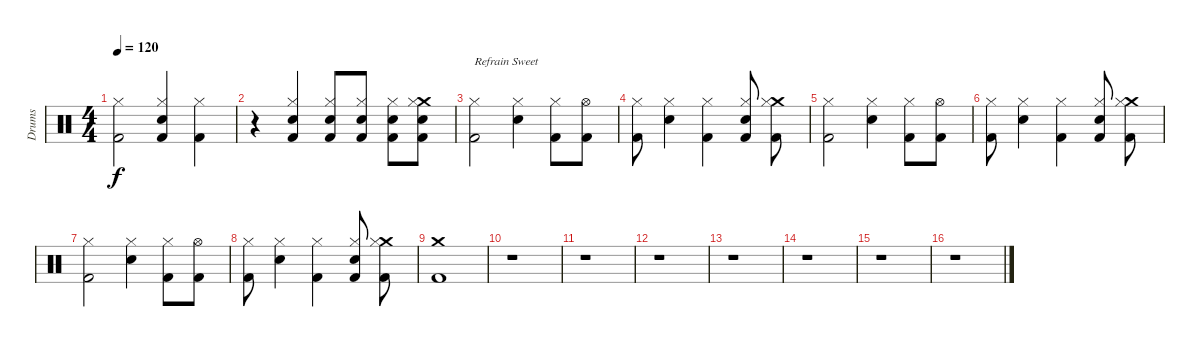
\track ("Drums" "Drums") {instrument percussion}
\staff {score}
\articulation defaults
\ts (4 4)
\tempo 120
\clef neutral
\ks c
("Kick (hit) 2" "Hi-Hat (closed)").2{dy f} ("Kick (hit) 2" "Electric Snare (hit)" "Hi-Hat (closed)").4 ("Kick (hit) 2" "Hi-Hat (closed)").4 |
r.4 ("Kick (hit) 2" "Electric Snare (hit)" "Hi-Hat (closed)").4{volume 11} ("Kick (hit) 2" "Electric Snare (hit)" "Hi-Hat (closed)").8 ("Kick (hit) 2" "Electric Snare (hit)" "Hi-Hat (closed)").8 ("Kick (hit) 2" "Electric Snare (hit)" "Hi-Hat (closed)").8 ("Kick (hit) 2" "Crash medium (hit)" "Electric Snare (hit)" "Hi-Hat (closed)").8 |
("Kick (hit) 2" "Hi-Hat (closed)").2{txt "Refrain Sweet"} ("Electric Snare (hit)" "Hi-Hat (closed)").4 ("Kick (hit) 2" "Hi-Hat (closed)").8 ("Kick (hit) 2" "Hi-Hat (open)").8 |
("Kick (hit) 2" "Hi-Hat (closed)").8 ("Electric Snare (hit)" "Hi-Hat (closed)").4 ("Kick (hit) 2" "Hi-Hat (closed)").4 ("Kick (hit) 2" "Electric Snare (hit)" "Hi-Hat (closed)").8 ("Kick (hit) 2" "Crash medium (hit)" "Hi-Hat (closed)").8 |
("Kick (hit) 2" "Hi-Hat (closed)").2 ("Electric Snare (hit)" "Hi-Hat (closed)").4 ("Kick (hit) 2" "Hi-Hat (closed)").8 ("Kick (hit) 2" "Hi-Hat (open)").8 |
("Kick (hit) 2" "Hi-Hat (closed)").8 ("Electric Snare (hit)" "Hi-Hat (closed)").4 ("Kick (hit) 2" "Hi-Hat (closed)").4 ("Kick (hit) 2" "Electric Snare (hit)" "Hi-Hat (closed)").8 ("Kick (hit) 2" "Crash medium (hit)" "Hi-Hat (closed)").8 |
("Kick (hit) 2" "Hi-Hat (closed)").2 ("Electric Snare (hit)" "Hi-Hat (closed)").4 ("Kick (hit) 2" "Hi-Hat (closed)").8 ("Kick (hit) 2" "Hi-Hat (open)").8 |
("Kick (hit) 2" "Hi-Hat (closed)").8 ("Electric Snare (hit)" "Hi-Hat (closed)").4 ("Kick (hit) 2" "Hi-Hat (closed)").4 ("Kick (hit) 2" "Electric Snare (hit)" "Hi-Hat (closed)").8 ("Kick (hit) 2" "Crash medium (hit)" "Hi-Hat (closed)").8 |
("Kick (hit) 2" "Crash medium (hit)").1 |
r.1 |
r.1 |
r.1 |
r.1 |
r.1 |
r.1 |
r.1
